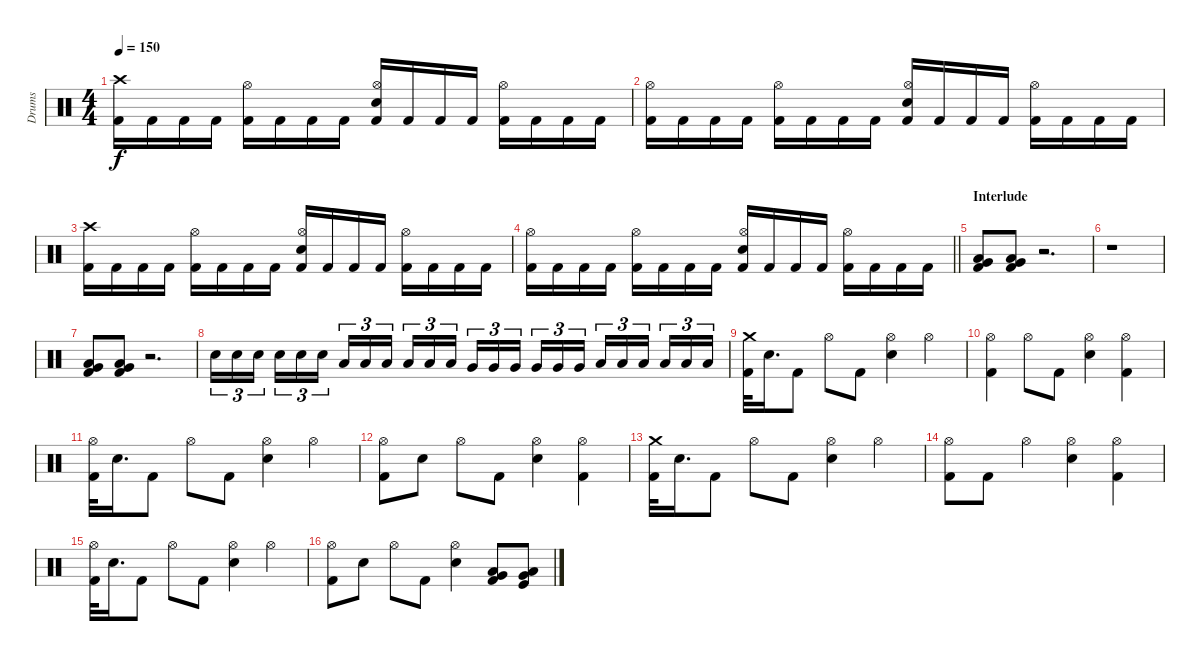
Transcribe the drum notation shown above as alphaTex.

\track ("Drums" "Drums") {instrument percussion}
\staff {score}
\articulation defaults
\ts (4 4)
\tempo 150
\clef neutral
\ks c
("Crash high (hit)" "Kick (hit) 2").16{dy f} "Kick (hit) 2".16 "Kick (hit) 2".16 "Kick (hit) 2".16 ("Hi-Hat (open)" "Kick (hit) 2").16 "Kick (hit) 2".16 "Kick (hit) 2".16 "Kick (hit) 2".16 ("Hi-Hat (open)" "Snare (hit) 2" "Kick (hit) 2").16 "Kick (hit) 2".16 "Kick (hit) 2".16 "Kick (hit) 2".16 ("Hi-Hat (open)" "Kick (hit) 2").16 "Kick (hit) 2".16 "Kick (hit) 2".16 "Kick (hit) 2".16 |
("Hi-Hat (open)" "Kick (hit) 2").16 "Kick (hit) 2".16 "Kick (hit) 2".16 "Kick (hit) 2".16 ("Hi-Hat (open)" "Kick (hit) 2").16 "Kick (hit) 2".16 "Kick (hit) 2".16 "Kick (hit) 2".16 ("Hi-Hat (open)" "Snare (hit) 2" "Kick (hit) 2").16 "Kick (hit) 2".16 "Kick (hit) 2".16 "Kick (hit) 2".16 ("Hi-Hat (open)" "Kick (hit) 2").16 "Kick (hit) 2".16 "Kick (hit) 2".16 "Kick (hit) 2".16 |
("Crash high (hit)" "Kick (hit) 2").16 "Kick (hit) 2".16 "Kick (hit) 2".16 "Kick (hit) 2".16 ("Hi-Hat (open)" "Kick (hit) 2").16 "Kick (hit) 2".16 "Kick (hit) 2".16 "Kick (hit) 2".16 ("Hi-Hat (open)" "Snare (hit) 2" "Kick (hit) 2").16 "Kick (hit) 2".16 "Kick (hit) 2".16 "Kick (hit) 2".16 ("Hi-Hat (open)" "Kick (hit) 2").16 "Kick (hit) 2".16 "Kick (hit) 2".16 "Kick (hit) 2".16 |
\barLineRight lightlight
("Hi-Hat (open)" "Kick (hit) 2").16 "Kick (hit) 2".16 "Kick (hit) 2".16 "Kick (hit) 2".16 ("Hi-Hat (open)" "Kick (hit) 2").16 "Kick (hit) 2".16 "Kick (hit) 2".16 "Kick (hit) 2".16 ("Hi-Hat (open)" "Snare (hit) 2" "Kick (hit) 2").16 "Kick (hit) 2".16 "Kick (hit) 2".16 "Kick (hit) 2".16 ("Hi-Hat (open)" "Kick (hit) 2").16 "Kick (hit) 2".16 "Kick (hit) 2".16 "Kick (hit) 2".16 |
\section ("" "Interlude")
("Very Low Tom (hit)" "Low Floor Tom (hit)" "Kick (hit) 2").8 ("Very Low Tom (hit)" "Low Floor Tom (hit)" "Kick (hit) 2").8 r.2{d} |
r.1 |
("Very Low Tom (hit)" "Low Floor Tom (hit)" "Kick (hit) 2").8 ("Very Low Tom (hit)" "Low Floor Tom (hit)" "Kick (hit) 2").8 r.2{d} |
"Snare (hit) 2".16{tu (3 2)} "Snare (hit) 2".16{tu (3 2)} "Snare (hit) 2".16{tu (3 2) beam splitsecondary} "Snare (hit) 2".16{tu (3 2)} "Snare (hit) 2".16{tu (3 2)} "Snare (hit) 2".16{tu (3 2)} "Low Tom (hit)".16{tu (3 2)} "Low Tom (hit)".16{tu (3 2)} "Low Tom (hit)".16{tu (3 2) beam splitsecondary} "Low Tom (hit)".16{tu (3 2)} "Low Tom (hit)".16{tu (3 2)} "Low Tom (hit)".16{tu (3 2)} "Very Low Tom (hit)".16{tu (3 2)} "Very Low Tom (hit)".16{tu (3 2)} "Very Low Tom (hit)".16{tu (3 2) beam splitsecondary} "Very Low Tom (hit)".16{tu (3 2)} "Very Low Tom (hit)".16{tu (3 2)} "Very Low Tom (hit)".16{tu (3 2)} "Low Floor Tom (hit)".16{tu (3 2)} "Low Floor Tom (hit)".16{tu (3 2)} "Low Floor Tom (hit)".16{tu (3 2) beam splitsecondary} "Low Floor Tom (hit)".16{tu (3 2)} "Low Floor Tom (hit)".16{tu (3 2)} "Low Floor Tom (hit)".16{tu (3 2)} |
("Crash medium (hit)" "Kick (hit) 2").32 "Snare (hit) 2".16{d} "Kick (hit) 2".8 "Hi-Hat (open)".8 "Kick (hit) 2".8 ("Hi-Hat (open)" "Snare (hit) 2").4 "Hi-Hat (open)".4 |
("Hi-Hat (open)" "Kick (hit) 2").4 "Hi-Hat (open)".8 "Kick (hit) 2".8 ("Hi-Hat (open)" "Snare (hit) 2").4 ("Hi-Hat (open)" "Kick (hit) 2").4 |
("Hi-Hat (open)" "Kick (hit) 2").32 "Snare (hit) 2".16{d} "Kick (hit) 2".8 "Hi-Hat (open)".8 "Kick (hit) 2".8 ("Hi-Hat (open)" "Snare (hit) 2").4 "Hi-Hat (open)".4 |
("Hi-Hat (open)" "Kick (hit) 2").8 "Snare (hit) 2".8 "Hi-Hat (open)".8 "Kick (hit) 2".8 ("Hi-Hat (open)" "Snare (hit) 2").4 ("Hi-Hat (open)" "Kick (hit) 2").4 |
("Crash medium (hit)" "Kick (hit) 2").32 "Snare (hit) 2".16{d} "Kick (hit) 2".8 "Hi-Hat (open)".8 "Kick (hit) 2".8 ("Hi-Hat (open)" "Snare (hit) 2").4 "Hi-Hat (open)".4 |
("Hi-Hat (open)" "Kick (hit) 2").8 "Kick (hit) 2".8 "Hi-Hat (open)".4 ("Hi-Hat (open)" "Snare (hit) 2").4 ("Hi-Hat (open)" "Kick (hit) 2").4 |
("Hi-Hat (open)" "Kick (hit) 2").32 "Snare (hit) 2".16{d} "Kick (hit) 2".8 "Hi-Hat (open)".8 "Kick (hit) 2".8 ("Hi-Hat (open)" "Snare (hit) 2").4 "Hi-Hat (open)".4 |
("Hi-Hat (open)" "Kick (hit) 2").8 "Snare (hit) 2".8 "Hi-Hat (open)".8 "Kick (hit) 2".8 ("Hi-Hat (open)" "Snare (hit) 2").4 ("Very Low Tom (hit)" "Low Floor Tom (hit)" "Kick (hit) 2").8 ("Very Low Tom (hit)" "Low Floor Tom (hit)" "Kick (hit)").8
